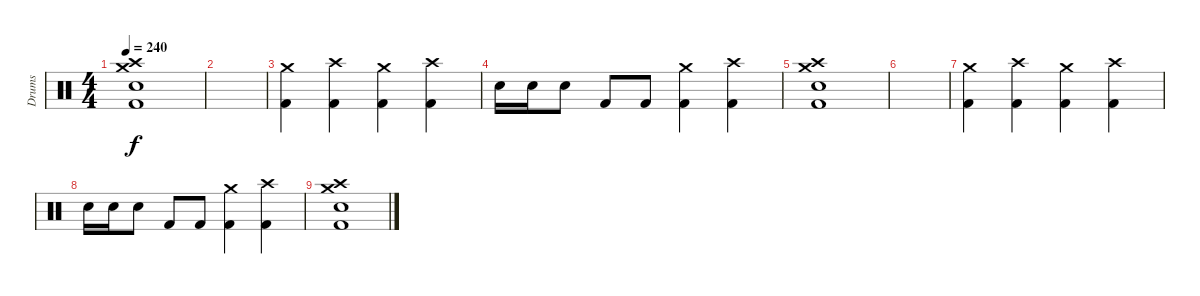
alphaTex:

\track ("Drums" "Drums") {instrument percussion}
\staff {score}
\articulation defaults
\ts (4 4)
\tempo 240
\clef neutral
\ks c
("Kick (hit) 2" "Snare (hit) 2" "Crash high (hit)" "Crash medium (hit)").1{dy f} |
|
("Kick (hit) 2" "Crash medium (hit)").4 ("Kick (hit) 2" "Crash high (hit)").4 ("Kick (hit) 2" "Crash medium (hit)").4 ("Kick (hit) 2" "Crash high (hit)").4 |
"Snare (hit) 2".16 "Snare (hit) 2".16 "Snare (hit) 2".8 "Kick (hit) 2".8 "Kick (hit) 2".8 ("Kick (hit) 2" "Crash medium (hit)").4 ("Kick (hit) 2" "Crash high (hit)").4 |
("Kick (hit) 2" "Snare (hit) 2" "Crash high (hit)" "Crash medium (hit)").1 |
|
("Kick (hit) 2" "Crash medium (hit)").4 ("Kick (hit) 2" "Crash high (hit)").4 ("Kick (hit) 2" "Crash medium (hit)").4 ("Kick (hit) 2" "Crash high (hit)").4 |
"Snare (hit) 2".16 "Snare (hit) 2".16 "Snare (hit) 2".8 "Kick (hit) 2".8 "Kick (hit) 2".8 ("Kick (hit) 2" "Crash medium (hit)").4 ("Kick (hit) 2" "Crash high (hit)").4 |
("Kick (hit) 2" "Snare (hit) 2" "Crash high (hit)" "Crash medium (hit)").1
